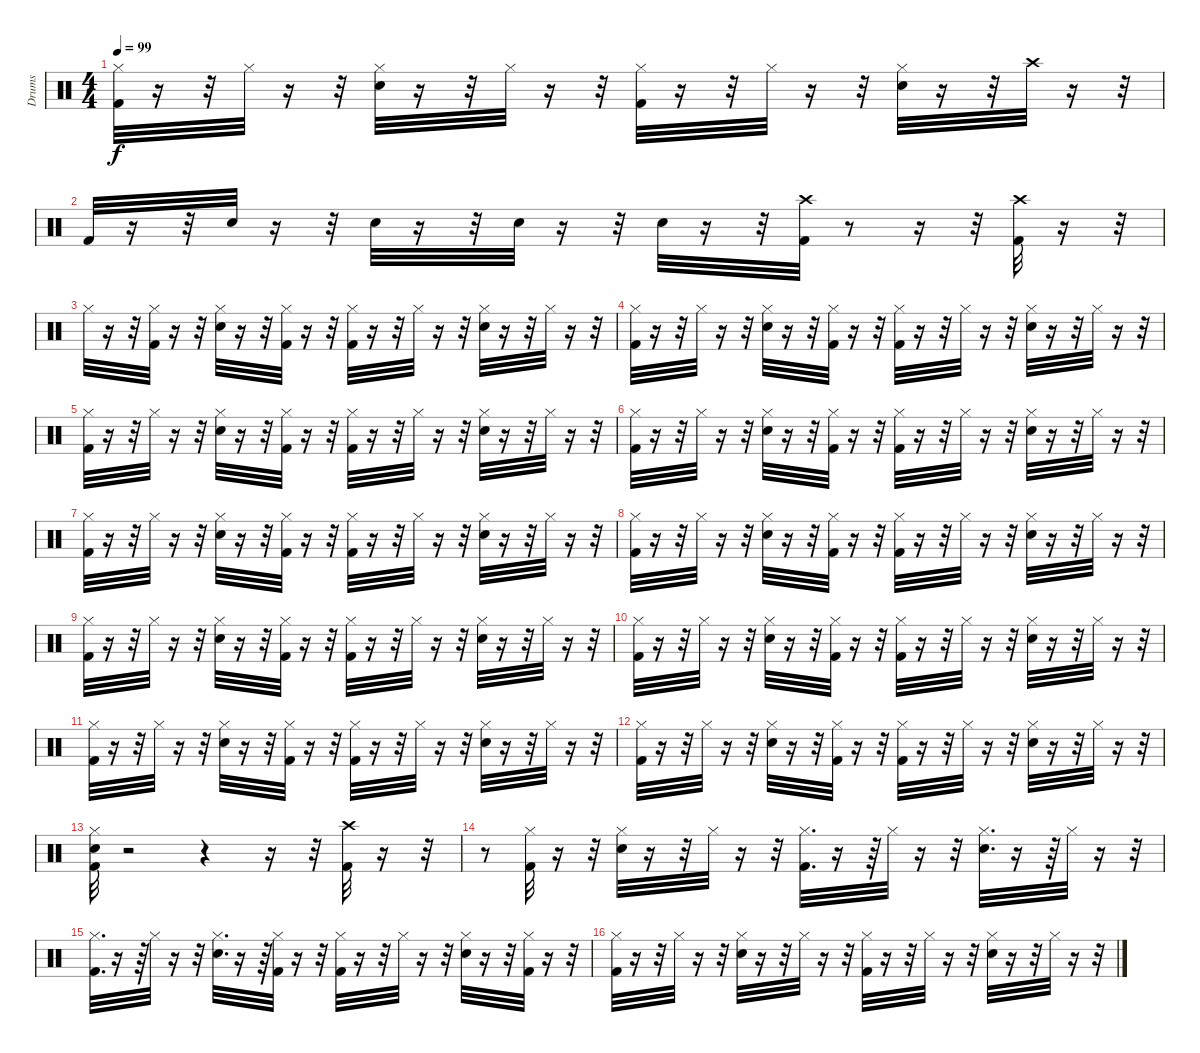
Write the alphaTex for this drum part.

\track ("Drums" "Drums") {instrument percussion}
\staff {score}
\articulation defaults
\ts (4 4)
\tempo 99
\clef neutral
\ks c
("Hi-Hat (closed)" "Kick (hit) 2").32{dy f} r.16 r.32 "Hi-Hat (closed)".32 r.16 r.32 ("Hi-Hat (closed)" "Snare (hit) 2").32 r.16 r.32 "Hi-Hat (closed)".32 r.16 r.32 ("Hi-Hat (closed)" "Kick (hit) 2").32 r.16 r.32 "Hi-Hat (closed)".32 r.16 r.32 ("Hi-Hat (closed)" "Snare (hit) 2").32 r.16 r.32 "Crash high (hit)".32 r.16 r.32 |
"Kick (hit) 2".32 r.16 r.32 "Snare (hit) 2".32 r.16 r.32 "Snare (hit) 2".32 r.16 r.32 "Snare (hit) 2".32 r.16 r.32 "Snare (hit) 2".32 r.16 r.32 ("Crash high (hit)" "Kick (hit) 2").32 r.8 r.16 r.32 ("Crash high (hit)" "Kick (hit) 2").32 r.16 r.32 |
"Hi-Hat (closed)".32 r.16 r.32 ("Hi-Hat (closed)" "Kick (hit) 2").32 r.16 r.32 ("Hi-Hat (closed)" "Snare (hit) 2").32 r.16 r.32 ("Hi-Hat (closed)" "Kick (hit) 2").32 r.16 r.32 ("Hi-Hat (closed)" "Kick (hit) 2").32 r.16 r.32 "Hi-Hat (closed)".32 r.16 r.32 ("Hi-Hat (closed)" "Snare (hit) 2").32 r.16 r.32 "Hi-Hat (closed)".32 r.16 r.32 |
("Hi-Hat (closed)" "Kick (hit) 2").32 r.16 r.32 "Hi-Hat (closed)".32 r.16 r.32 ("Hi-Hat (closed)" "Snare (hit) 2").32 r.16 r.32 ("Hi-Hat (closed)" "Kick (hit) 2").32 r.16 r.32 ("Hi-Hat (closed)" "Kick (hit) 2").32 r.16 r.32 "Hi-Hat (closed)".32 r.16 r.32 ("Hi-Hat (closed)" "Snare (hit) 2").32 r.16 r.32 "Hi-Hat (closed)".32 r.16 r.32 |
("Hi-Hat (closed)" "Kick (hit) 2").32 r.16 r.32 "Hi-Hat (closed)".32 r.16 r.32 ("Hi-Hat (closed)" "Snare (hit) 2").32 r.16 r.32 ("Hi-Hat (closed)" "Kick (hit) 2").32 r.16 r.32 ("Hi-Hat (closed)" "Kick (hit) 2").32 r.16 r.32 "Hi-Hat (closed)".32 r.16 r.32 ("Hi-Hat (closed)" "Snare (hit) 2").32 r.16 r.32 "Hi-Hat (closed)".32 r.16 r.32 |
("Hi-Hat (closed)" "Kick (hit) 2").32 r.16 r.32 "Hi-Hat (closed)".32 r.16 r.32 ("Hi-Hat (closed)" "Snare (hit) 2").32 r.16 r.32 ("Hi-Hat (closed)" "Kick (hit) 2").32 r.16 r.32 ("Hi-Hat (closed)" "Kick (hit) 2").32 r.16 r.32 "Hi-Hat (closed)".32 r.16 r.32 ("Hi-Hat (closed)" "Snare (hit) 2").32 r.16 r.32 "Hi-Hat (closed)".32 r.16 r.32 |
("Hi-Hat (closed)" "Kick (hit) 2").32 r.16 r.32 "Hi-Hat (closed)".32 r.16 r.32 ("Hi-Hat (closed)" "Snare (hit) 2").32 r.16 r.32 ("Hi-Hat (closed)" "Kick (hit) 2").32 r.16 r.32 ("Hi-Hat (closed)" "Kick (hit) 2").32 r.16 r.32 "Hi-Hat (closed)".32 r.16 r.32 ("Hi-Hat (closed)" "Snare (hit) 2").32 r.16 r.32 "Hi-Hat (closed)".32 r.16 r.32 |
("Hi-Hat (closed)" "Kick (hit) 2").32 r.16 r.32 "Hi-Hat (closed)".32 r.16 r.32 ("Hi-Hat (closed)" "Snare (hit) 2").32 r.16 r.32 ("Hi-Hat (closed)" "Kick (hit) 2").32 r.16 r.32 ("Hi-Hat (closed)" "Kick (hit) 2").32 r.16 r.32 "Hi-Hat (closed)".32 r.16 r.32 ("Hi-Hat (closed)" "Snare (hit) 2").32 r.16 r.32 "Hi-Hat (closed)".32 r.16 r.32 |
("Hi-Hat (closed)" "Kick (hit) 2").32 r.16 r.32 "Hi-Hat (closed)".32 r.16 r.32 ("Hi-Hat (closed)" "Snare (hit) 2").32 r.16 r.32 ("Hi-Hat (closed)" "Kick (hit) 2").32 r.16 r.32 ("Hi-Hat (closed)" "Kick (hit) 2").32 r.16 r.32 "Hi-Hat (closed)".32 r.16 r.32 ("Hi-Hat (closed)" "Snare (hit) 2").32 r.16 r.32 "Hi-Hat (closed)".32 r.16 r.32 |
("Hi-Hat (closed)" "Kick (hit) 2").32 r.16 r.32 "Hi-Hat (closed)".32 r.16 r.32 ("Hi-Hat (closed)" "Snare (hit) 2").32 r.16 r.32 ("Hi-Hat (closed)" "Kick (hit) 2").32 r.16 r.32 ("Hi-Hat (closed)" "Kick (hit) 2").32 r.16 r.32 "Hi-Hat (closed)".32 r.16 r.32 ("Hi-Hat (closed)" "Snare (hit) 2").32 r.16 r.32 "Hi-Hat (closed)".32 r.16 r.32 |
("Hi-Hat (closed)" "Kick (hit) 2").32 r.16 r.32 "Hi-Hat (closed)".32 r.16 r.32 ("Hi-Hat (closed)" "Snare (hit) 2").32 r.16 r.32 ("Hi-Hat (closed)" "Kick (hit) 2").32 r.16 r.32 ("Hi-Hat (closed)" "Kick (hit) 2").32 r.16 r.32 "Hi-Hat (closed)".32 r.16 r.32 ("Hi-Hat (closed)" "Snare (hit) 2").32 r.16 r.32 "Hi-Hat (closed)".32 r.16 r.32 |
("Hi-Hat (closed)" "Kick (hit) 2").32 r.16 r.32 "Hi-Hat (closed)".32 r.16 r.32 ("Hi-Hat (closed)" "Snare (hit) 2").32 r.16 r.32 ("Hi-Hat (closed)" "Kick (hit) 2").32 r.16 r.32 ("Hi-Hat (closed)" "Kick (hit) 2").32 r.16 r.32 "Hi-Hat (closed)".32 r.16 r.32 ("Hi-Hat (closed)" "Snare (hit) 2").32 r.16 r.32 "Hi-Hat (closed)".32 r.16 r.32 |
("Hi-Hat (closed)" "Snare (hit) 2" "Kick (hit) 2").32 r.2 r.4 r.16 r.32 ("Crash high (hit)" "Kick (hit) 2").32 r.16 r.32 |
r.8 ("Hi-Hat (closed)" "Kick (hit) 2").32 r.16 r.32 ("Hi-Hat (closed)" "Snare (hit) 2").32 r.16 r.32 "Hi-Hat (closed)".32 r.16 r.32 ("Hi-Hat (closed)" "Kick (hit) 2").32{d} r.16 r.64 "Hi-Hat (closed)".32 r.16 r.32 ("Hi-Hat (closed)" "Snare (hit) 2").32{d} r.16 r.64 "Hi-Hat (closed)".32 r.16 r.32 |
("Hi-Hat (closed)" "Kick (hit) 2").32{d} r.16 r.64 "Hi-Hat (closed)".32 r.16 r.32 ("Hi-Hat (closed)" "Snare (hit) 2").32{d} r.16 r.64 ("Hi-Hat (closed)" "Kick (hit) 2").32 r.16 r.32 ("Hi-Hat (closed)" "Kick (hit) 2").32 r.16 r.32 "Hi-Hat (closed)".32 r.16 r.32 ("Hi-Hat (closed)" "Snare (hit) 2").32 r.16 r.32 ("Hi-Hat (closed)" "Kick (hit) 2").32 r.16 r.32 |
("Hi-Hat (closed)" "Kick (hit) 2").32 r.16 r.32 "Hi-Hat (closed)".32 r.16 r.32 ("Hi-Hat (closed)" "Snare (hit) 2").32 r.16 r.32 "Hi-Hat (closed)".32 r.16 r.32 ("Hi-Hat (closed)" "Kick (hit) 2").32 r.16 r.32 "Hi-Hat (closed)".32 r.16 r.32 ("Hi-Hat (closed)" "Snare (hit) 2").32 r.16 r.32 "Hi-Hat (closed)".32 r.16 r.32
